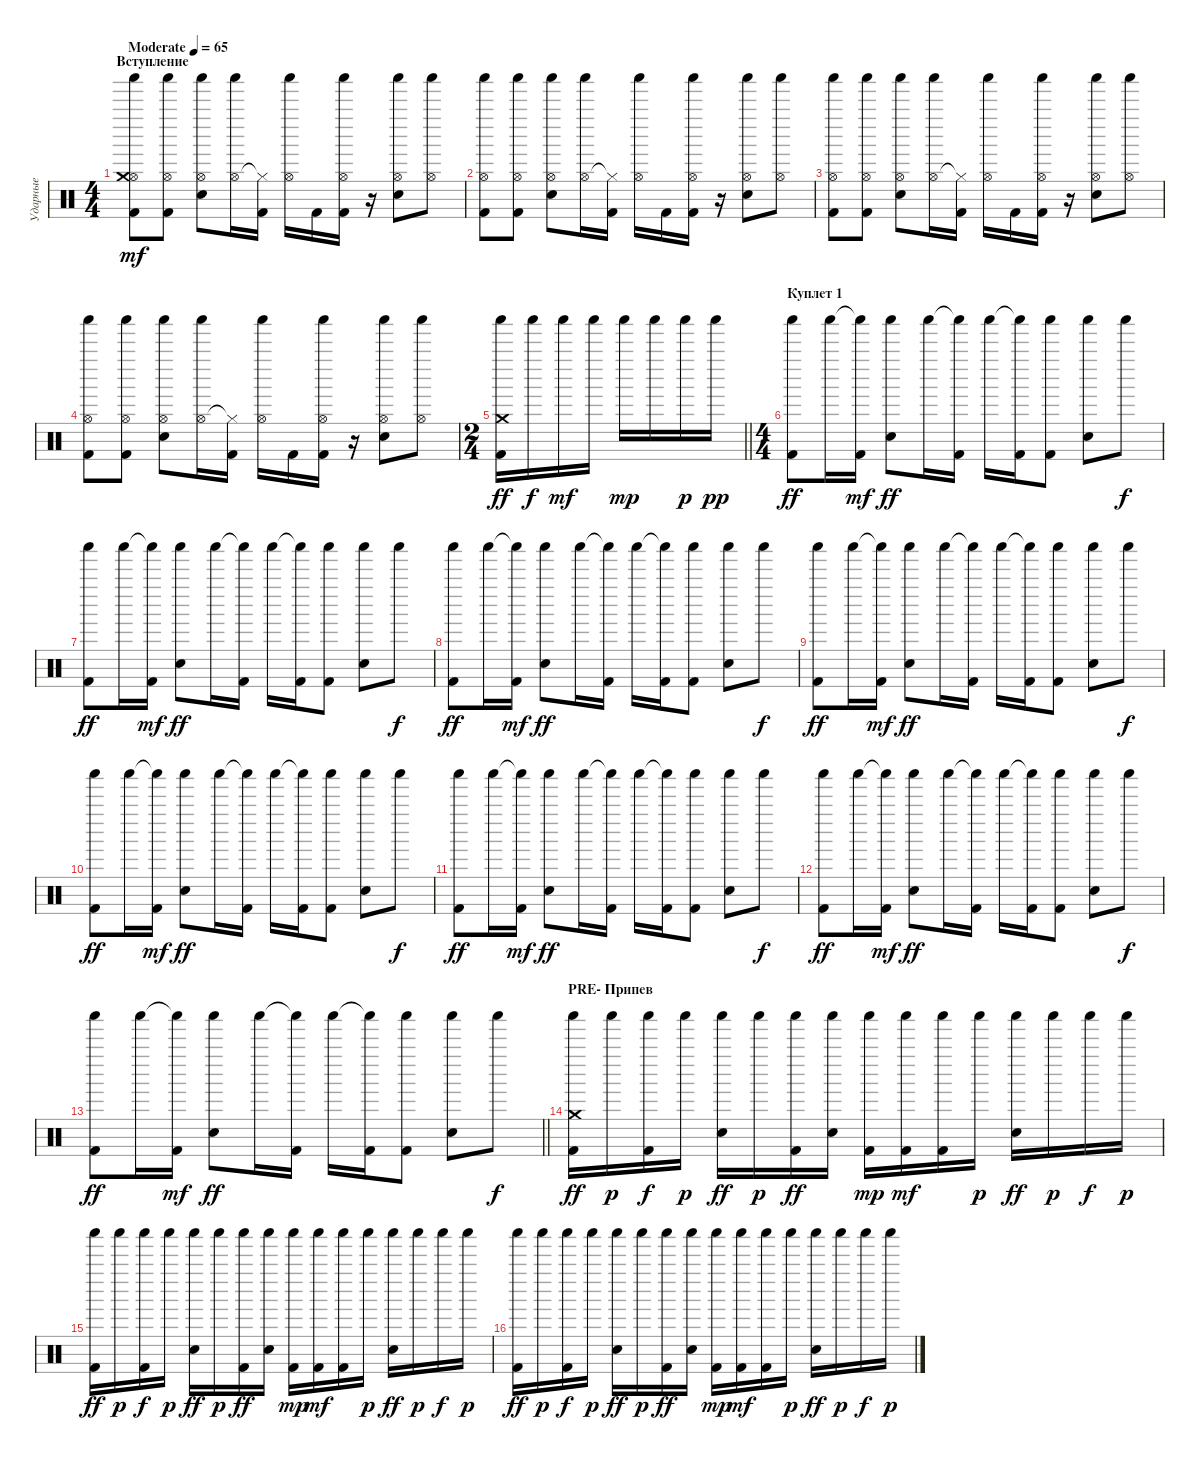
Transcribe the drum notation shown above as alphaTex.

\track ("Ударные" "Ударные") {instrument percussion}
\staff {score}
\articulation defaults
\ts (4 4)
\section ("" "Вступление")
\tempo (65 "Moderate")
\clef neutral
\ks c
("Hi-Hat (open)" "Kick (hit) 2" "Crash medium (hit)" "Shaker (hit)").8{dy mf} ("Hi-Hat (open)" "Kick (hit) 2" "Shaker (hit)").8 ("Hi-Hat (open)" "Snare (hit) 2" "Shaker (hit)").8 ("Hi-Hat (open)" "Shaker (hit)").16 ("Hi-Hat (closed)"{t} "Kick (hit) 2").16 ("Hi-Hat (open)" "Shaker (hit)").16 "Kick (hit) 2".16 ("Hi-Hat (open)" "Kick (hit) 2" "Shaker (hit)").16 r.16 ("Hi-Hat (open)" "Snare (hit) 2" "Shaker (hit)").8 ("Hi-Hat (open)" "Shaker (hit)").8 |
("Hi-Hat (open)" "Kick (hit) 2" "Shaker (hit)").8 ("Hi-Hat (open)" "Kick (hit) 2" "Shaker (hit)").8 ("Hi-Hat (open)" "Snare (hit) 2" "Shaker (hit)").8 ("Hi-Hat (open)" "Shaker (hit)").16 ("Hi-Hat (closed)"{t} "Kick (hit) 2").16 ("Hi-Hat (open)" "Shaker (hit)").16 "Kick (hit) 2".16 ("Hi-Hat (open)" "Kick (hit) 2" "Shaker (hit)").16 r.16 ("Hi-Hat (open)" "Snare (hit) 2" "Shaker (hit)").8 ("Hi-Hat (open)" "Shaker (hit)").8 |
("Hi-Hat (open)" "Kick (hit) 2" "Shaker (hit)").8 ("Hi-Hat (open)" "Kick (hit) 2" "Shaker (hit)").8 ("Hi-Hat (open)" "Snare (hit) 2" "Shaker (hit)").8 ("Hi-Hat (open)" "Shaker (hit)").16 ("Hi-Hat (closed)"{t} "Kick (hit) 2").16 ("Hi-Hat (open)" "Shaker (hit)").16 "Kick (hit) 2".16 ("Hi-Hat (open)" "Kick (hit) 2" "Shaker (hit)").16 r.16 ("Hi-Hat (open)" "Snare (hit) 2" "Shaker (hit)").8 ("Hi-Hat (open)" "Shaker (hit)").8 |
("Hi-Hat (open)" "Kick (hit) 2" "Shaker (hit)").8 ("Hi-Hat (open)" "Kick (hit) 2" "Shaker (hit)").8 ("Hi-Hat (open)" "Snare (hit) 2" "Shaker (hit)").8 ("Hi-Hat (open)" "Shaker (hit)").16 ("Hi-Hat (closed)"{t} "Kick (hit) 2").16 ("Hi-Hat (open)" "Shaker (hit)").16 "Kick (hit) 2".16 ("Hi-Hat (open)" "Kick (hit) 2" "Shaker (hit)").16 r.16 ("Hi-Hat (open)" "Snare (hit) 2" "Shaker (hit)").8 ("Hi-Hat (open)" "Shaker (hit)").8 |
\ts (2 4)
\barLineRight lightlight
("Crash medium (hit)" "Kick (hit) 2" "Shaker (hit)").16{dy ff} "Shaker (hit)".16{dy f} "Shaker (hit)".16{dy mf} "Shaker (hit)".16 "Shaker (hit)".16{dy mp} "Shaker (hit)".16 "Shaker (hit)".16{dy p} "Shaker (hit)".16{dy pp} |
\ts (4 4)
\section ("" "Куплет 1")
("Shaker (hit)" "Kick (hit) 2").8{dy ff} "Shaker (hit)".16 ("Shaker (hit)"{t} "Kick (hit) 2").16{dy mf} ("Shaker (hit)" "Snare (hit) 2").8{dy ff} "Shaker (hit)".16 ("Shaker (hit)"{t} "Kick (hit) 2").16 "Shaker (hit)".16 ("Shaker (hit)"{t} "Kick (hit) 2").16 ("Shaker (hit)" "Kick (hit) 2").8 ("Shaker (hit)" "Snare (hit) 2").8 "Shaker (hit)".8{dy f} |
("Shaker (hit)" "Kick (hit) 2").8{dy ff} "Shaker (hit)".16 ("Shaker (hit)"{t} "Kick (hit) 2").16{dy mf} ("Shaker (hit)" "Snare (hit) 2").8{dy ff} "Shaker (hit)".16 ("Shaker (hit)"{t} "Kick (hit) 2").16 "Shaker (hit)".16 ("Shaker (hit)"{t} "Kick (hit) 2").16 ("Shaker (hit)" "Kick (hit) 2").8 ("Shaker (hit)" "Snare (hit) 2").8 "Shaker (hit)".8{dy f} |
("Shaker (hit)" "Kick (hit) 2").8{dy ff} "Shaker (hit)".16 ("Shaker (hit)"{t} "Kick (hit) 2").16{dy mf} ("Shaker (hit)" "Snare (hit) 2").8{dy ff} "Shaker (hit)".16 ("Shaker (hit)"{t} "Kick (hit) 2").16 "Shaker (hit)".16 ("Shaker (hit)"{t} "Kick (hit) 2").16 ("Shaker (hit)" "Kick (hit) 2").8 ("Shaker (hit)" "Snare (hit) 2").8 "Shaker (hit)".8{dy f} |
("Shaker (hit)" "Kick (hit) 2").8{dy ff} "Shaker (hit)".16 ("Shaker (hit)"{t} "Kick (hit) 2").16{dy mf} ("Shaker (hit)" "Snare (hit) 2").8{dy ff} "Shaker (hit)".16 ("Shaker (hit)"{t} "Kick (hit) 2").16 "Shaker (hit)".16 ("Shaker (hit)"{t} "Kick (hit) 2").16 ("Shaker (hit)" "Kick (hit) 2").8 ("Shaker (hit)" "Snare (hit) 2").8 "Shaker (hit)".8{dy f} |
("Shaker (hit)" "Kick (hit) 2").8{dy ff} "Shaker (hit)".16 ("Shaker (hit)"{t} "Kick (hit) 2").16{dy mf} ("Shaker (hit)" "Snare (hit) 2").8{dy ff} "Shaker (hit)".16 ("Shaker (hit)"{t} "Kick (hit) 2").16 "Shaker (hit)".16 ("Shaker (hit)"{t} "Kick (hit) 2").16 ("Shaker (hit)" "Kick (hit) 2").8 ("Shaker (hit)" "Snare (hit) 2").8 "Shaker (hit)".8{dy f} |
("Shaker (hit)" "Kick (hit) 2").8{dy ff} "Shaker (hit)".16 ("Shaker (hit)"{t} "Kick (hit) 2").16{dy mf} ("Shaker (hit)" "Snare (hit) 2").8{dy ff} "Shaker (hit)".16 ("Shaker (hit)"{t} "Kick (hit) 2").16 "Shaker (hit)".16 ("Shaker (hit)"{t} "Kick (hit) 2").16 ("Shaker (hit)" "Kick (hit) 2").8 ("Shaker (hit)" "Snare (hit) 2").8 "Shaker (hit)".8{dy f} |
("Shaker (hit)" "Kick (hit) 2").8{dy ff} "Shaker (hit)".16 ("Shaker (hit)"{t} "Kick (hit) 2").16{dy mf} ("Shaker (hit)" "Snare (hit) 2").8{dy ff} "Shaker (hit)".16 ("Shaker (hit)"{t} "Kick (hit) 2").16 "Shaker (hit)".16 ("Shaker (hit)"{t} "Kick (hit) 2").16 ("Shaker (hit)" "Kick (hit) 2").8 ("Shaker (hit)" "Snare (hit) 2").8 "Shaker (hit)".8{dy f} |
\barLineRight lightlight
("Shaker (hit)" "Kick (hit) 2").8{dy ff} "Shaker (hit)".16 ("Shaker (hit)"{t} "Kick (hit) 2").16{dy mf} ("Shaker (hit)" "Snare (hit) 2").8{dy ff} "Shaker (hit)".16 ("Shaker (hit)"{t} "Kick (hit) 2").16 "Shaker (hit)".16 ("Shaker (hit)"{t} "Kick (hit) 2").16 ("Shaker (hit)" "Kick (hit) 2").8 ("Shaker (hit)" "Snare (hit) 2").8 "Shaker (hit)".8{dy f} |
\section ("" "PRE- Припев")
("Shaker (hit)" "Crash medium (hit)" "Kick (hit) 2").16{dy ff} "Shaker (hit)".16{dy p} ("Shaker (hit)" "Kick (hit) 2").16{dy f} "Shaker (hit)".16{dy p} ("Shaker (hit)" "Snare (hit) 2").16{dy ff} "Shaker (hit)".16{dy p} ("Shaker (hit)" "Kick (hit) 2").16{dy ff} ("Shaker (hit)" "Snare (hit) 2").16 ("Shaker (hit)" "Kick (hit) 2").16{dy mp} ("Shaker (hit)" "Kick (hit) 2").16{dy mf} ("Shaker (hit)" "Kick (hit) 2").16 "Shaker (hit)".16{dy p} ("Shaker (hit)" "Snare (hit) 2").16{dy ff} "Shaker (hit)".16{dy p} "Shaker (hit)".16{dy f} "Shaker (hit)".16{dy p} |
("Shaker (hit)" "Kick (hit) 2").16{dy ff} "Shaker (hit)".16{dy p} ("Shaker (hit)" "Kick (hit) 2").16{dy f} "Shaker (hit)".16{dy p} ("Shaker (hit)" "Snare (hit) 2").16{dy ff} "Shaker (hit)".16{dy p} ("Shaker (hit)" "Kick (hit) 2").16{dy ff} ("Shaker (hit)" "Snare (hit) 2").16 ("Shaker (hit)" "Kick (hit) 2").16{dy mp} ("Shaker (hit)" "Kick (hit) 2").16{dy mf} ("Shaker (hit)" "Kick (hit) 2").16 "Shaker (hit)".16{dy p} ("Shaker (hit)" "Snare (hit) 2").16{dy ff} "Shaker (hit)".16{dy p} "Shaker (hit)".16{dy f} "Shaker (hit)".16{dy p} |
("Shaker (hit)" "Kick (hit) 2").16{dy ff} "Shaker (hit)".16{dy p} ("Shaker (hit)" "Kick (hit) 2").16{dy f} "Shaker (hit)".16{dy p} ("Shaker (hit)" "Snare (hit) 2").16{dy ff} "Shaker (hit)".16{dy p} ("Shaker (hit)" "Kick (hit) 2").16{dy ff} ("Shaker (hit)" "Snare (hit) 2").16 ("Shaker (hit)" "Kick (hit) 2").16{dy mp} ("Shaker (hit)" "Kick (hit) 2").16{dy mf} ("Shaker (hit)" "Kick (hit) 2").16 "Shaker (hit)".16{dy p} ("Shaker (hit)" "Snare (hit) 2").16{dy ff} "Shaker (hit)".16{dy p} "Shaker (hit)".16{dy f} "Shaker (hit)".16{dy p}
